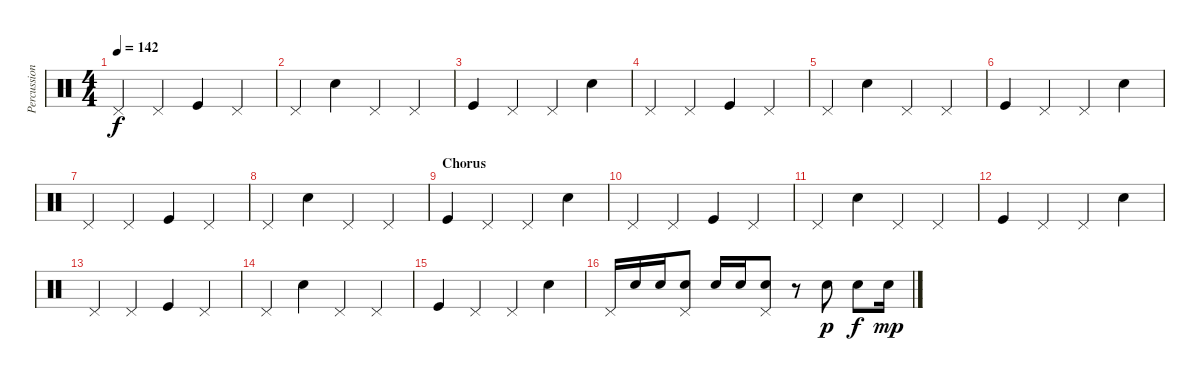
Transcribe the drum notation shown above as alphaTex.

\track ("Percussion" "Percussion") {instrument percussion}
\staff {score}
\articulation defaults
\ts (4 4)
\tempo 142
\clef neutral
\ks c "Pedal Hi-Hat (hit)".4{dy f} "Pedal Hi-Hat (hit)".4 "Kick (hit)".4 "Pedal Hi-Hat (hit)".4
|
"Pedal Hi-Hat (hit)".4 "Electric Snare (hit)".4 "Pedal Hi-Hat (hit)".4 "Pedal Hi-Hat (hit)".4 |
"Kick (hit)".4 "Pedal Hi-Hat (hit)".4 "Pedal Hi-Hat (hit)".4 "Electric Snare (hit)".4 |
"Pedal Hi-Hat (hit)".4 "Pedal Hi-Hat (hit)".4 "Kick (hit)".4 "Pedal Hi-Hat (hit)".4 |
"Pedal Hi-Hat (hit)".4 "Electric Snare (hit)".4 "Pedal Hi-Hat (hit)".4 "Pedal Hi-Hat (hit)".4 |
"Kick (hit)".4 "Pedal Hi-Hat (hit)".4 "Pedal Hi-Hat (hit)".4 "Electric Snare (hit)".4 |
"Pedal Hi-Hat (hit)".4 "Pedal Hi-Hat (hit)".4 "Kick (hit)".4 "Pedal Hi-Hat (hit)".4 |
"Pedal Hi-Hat (hit)".4 "Electric Snare (hit)".4 "Pedal Hi-Hat (hit)".4 "Pedal Hi-Hat (hit)".4 |
\section ("" "Chorus")
"Kick (hit)".4 "Pedal Hi-Hat (hit)".4 "Pedal Hi-Hat (hit)".4 "Electric Snare (hit)".4 |
"Pedal Hi-Hat (hit)".4 "Pedal Hi-Hat (hit)".4 "Kick (hit)".4 "Pedal Hi-Hat (hit)".4 |
"Pedal Hi-Hat (hit)".4 "Electric Snare (hit)".4 "Pedal Hi-Hat (hit)".4 "Pedal Hi-Hat (hit)".4 |
"Kick (hit)".4 "Pedal Hi-Hat (hit)".4 "Pedal Hi-Hat (hit)".4 "Electric Snare (hit)".4 |
"Pedal Hi-Hat (hit)".4 "Pedal Hi-Hat (hit)".4 "Kick (hit)".4 "Pedal Hi-Hat (hit)".4 |
"Pedal Hi-Hat (hit)".4 "Electric Snare (hit)".4 "Pedal Hi-Hat (hit)".4 "Pedal Hi-Hat (hit)".4 |
"Kick (hit)".4 "Pedal Hi-Hat (hit)".4 "Pedal Hi-Hat (hit)".4 "Electric Snare (hit)".4 |
"Pedal Hi-Hat (hit)".16 "Snare (hit) 2".16 "Snare (hit) 2".16 ("Snare (hit) 2" "Pedal Hi-Hat (hit)").8 "Snare (hit) 2".16 "Snare (hit) 2".16 ("Snare (hit) 2" "Pedal Hi-Hat (hit)").8 r.8 "Snare (hit) 2".8{dy p} "Snare (hit) 2".8{dy f} "Snare (hit) 2".16{dy mp}
